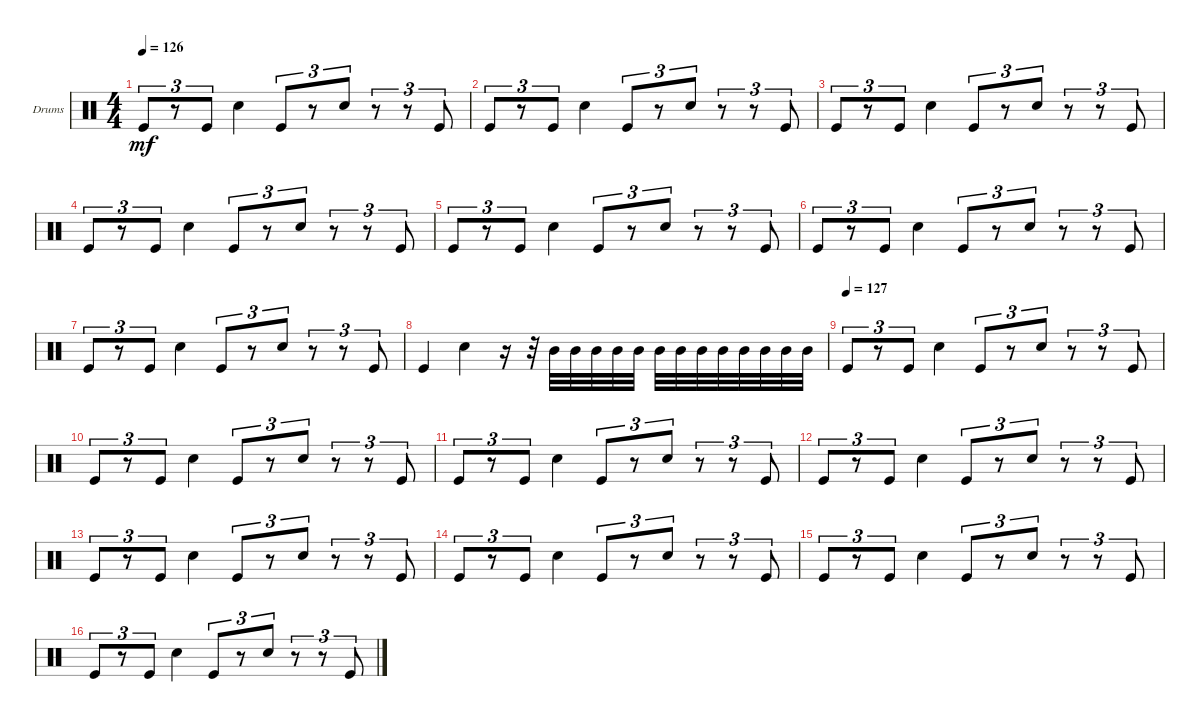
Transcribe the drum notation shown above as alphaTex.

\defaultSystemsLayout 4
\bracketExtendMode groupsimilarinstruments
\firstSystemTrackNameOrientation horizontal
\otherSystemsTrackNameOrientation horizontal
\track ("Drumkit" "Drums") {instrument percussion}
\staff {score}
\articulation defaults
\ts (4 4)
\tempo 126
\clef neutral
\scale
0.333333
\ks c "Kick (hit)".8{tu (3 2) dy mf}
r.8{tu (3 2)} "Kick (hit)".8{tu (3 2)} "Snare (hit) 2".4 "Kick (hit)".8{tu (3 2)} r.8{tu (3 2)} "Snare (hit) 2".8{tu (3 2)} r.8{tu (3 2)} r.8{tu (3 2)} "Kick (hit)".8{tu (3 2)} |
\scale
0.333333 "Kick (hit)".8{tu (3 2)} r.8{tu (3 2)} "Kick (hit)".8{tu (3 2)} "Snare (hit) 2".4 "Kick (hit)".8{tu (3 2)} r.8{tu (3 2)} "Snare (hit) 2".8{tu (3 2)} r.8{tu (3 2)} r.8{tu (3 2)} "Kick (hit)".8{tu (3 2)} |
\scale
0.333333 "Kick (hit)".8{tu (3 2)} r.8{tu (3 2)} "Kick (hit)".8{tu (3 2)} "Snare (hit) 2".4 "Kick (hit)".8{tu (3 2)} r.8{tu (3 2)} "Snare (hit) 2".8{tu (3 2)} r.8{tu (3 2)} r.8{tu (3 2)} "Kick (hit)".8{tu (3 2)} |
\scale
0.333333 "Kick (hit)".8{tu (3 2)} r.8{tu (3 2)} "Kick (hit)".8{tu (3 2)} "Snare (hit) 2".4 "Kick (hit)".8{tu (3 2)} r.8{tu (3 2)} "Snare (hit) 2".8{tu (3 2)} r.8{tu (3 2)} r.8{tu (3 2)} "Kick (hit)".8{tu (3 2)} |
\scale
0.333333 "Kick (hit)".8{tu (3 2)} r.8{tu (3 2)} "Kick (hit)".8{tu (3 2)} "Snare (hit) 2".4 "Kick (hit)".8{tu (3 2)} r.8{tu (3 2)} "Snare (hit) 2".8{tu (3 2)} r.8{tu (3 2)} r.8{tu (3 2)} "Kick (hit)".8{tu (3 2)} |
\scale
0.333333 "Kick (hit)".8{tu (3 2)} r.8{tu (3 2)} "Kick (hit)".8{tu (3 2)} "Snare (hit) 2".4 "Kick (hit)".8{tu (3 2)} r.8{tu (3 2)} "Snare (hit) 2".8{tu (3 2)} r.8{tu (3 2)} r.8{tu (3 2)} "Kick (hit)".8{tu (3 2)} |
\scale
0.333333 "Kick (hit)".8{tu (3 2)} r.8{tu (3 2)} "Kick (hit)".8{tu (3 2)} "Snare (hit) 2".4 "Kick (hit)".8{tu (3 2)} r.8{tu (3 2)} "Snare (hit) 2".8{tu (3 2)} r.8{tu (3 2)} r.8{tu (3 2)} "Kick (hit)".8{tu (3 2)} |
\scale
0.333333 "Kick (hit)".4 "Snare (hit) 2".4 r.16 r.32 "Mid Tom (hit)".32 "Mid Tom (hit)".32 "Mid Tom (hit)".32 "Mid Tom (hit)".32 "Mid Tom (hit)".32 "Mid Tom (hit)".32 "Mid Tom (hit)".32 "Mid Tom (hit)".32 "Mid Tom (hit)".32 "Mid Tom (hit)".32 "Mid Tom (hit)".32 "Mid Tom (hit)".32 "Mid Tom (hit)".32 |
\tempo 127
\scale
0.333333 "Kick (hit)".8{tu (3 2)} r.8{tu (3 2)} "Kick (hit)".8{tu (3 2)} "Snare (hit) 2".4 "Kick (hit)".8{tu (3 2)} r.8{tu (3 2)} "Snare (hit) 2".8{tu (3 2)} r.8{tu (3 2)} r.8{tu (3 2)} "Kick (hit)".8{tu (3 2)} |
\scale
0.333333 "Kick (hit)".8{tu (3 2)} r.8{tu (3 2)} "Kick (hit)".8{tu (3 2)} "Snare (hit) 2".4 "Kick (hit)".8{tu (3 2)} r.8{tu (3 2)} "Snare (hit) 2".8{tu (3 2)} r.8{tu (3 2)} r.8{tu (3 2)} "Kick (hit)".8{tu (3 2)} |
\scale
0.333333 "Kick (hit)".8{tu (3 2)} r.8{tu (3 2)} "Kick (hit)".8{tu (3 2)} "Snare (hit) 2".4 "Kick (hit)".8{tu (3 2)} r.8{tu (3 2)} "Snare (hit) 2".8{tu (3 2)} r.8{tu (3 2)} r.8{tu (3 2)} "Kick (hit)".8{tu (3 2)} |
\scale
0.333333 "Kick (hit)".8{tu (3 2)} r.8{tu (3 2)} "Kick (hit)".8{tu (3 2)} "Snare (hit) 2".4 "Kick (hit)".8{tu (3 2)} r.8{tu (3 2)} "Snare (hit) 2".8{tu (3 2)} r.8{tu (3 2)} r.8{tu (3 2)} "Kick (hit)".8{tu (3 2)} |
\scale
0.333333 "Kick (hit)".8{tu (3 2)} r.8{tu (3 2)} "Kick (hit)".8{tu (3 2)} "Snare (hit) 2".4 "Kick (hit)".8{tu (3 2)} r.8{tu (3 2)} "Snare (hit) 2".8{tu (3 2)} r.8{tu (3 2)} r.8{tu (3 2)} "Kick (hit)".8{tu (3 2)} |
\scale
0.333333 "Kick (hit)".8{tu (3 2)} r.8{tu (3 2)} "Kick (hit)".8{tu (3 2)} "Snare (hit) 2".4 "Kick (hit)".8{tu (3 2)} r.8{tu (3 2)} "Snare (hit) 2".8{tu (3 2)} r.8{tu (3 2)} r.8{tu (3 2)} "Kick (hit)".8{tu (3 2)} |
\scale
0.333333 "Kick (hit)".8{tu (3 2)} r.8{tu (3 2)} "Kick (hit)".8{tu (3 2)} "Snare (hit) 2".4 "Kick (hit)".8{tu (3 2)} r.8{tu (3 2)} "Snare (hit) 2".8{tu (3 2)} r.8{tu (3 2)} r.8{tu (3 2)} "Kick (hit)".8{tu (3 2)} |
\scale
0.333333 "Kick (hit)".8{tu (3 2)} r.8{tu (3 2)} "Kick (hit)".8{tu (3 2)} "Snare (hit) 2".4 "Kick (hit)".8{tu (3 2)} r.8{tu (3 2)} "Snare (hit) 2".8{tu (3 2)} r.8{tu (3 2)} r.8{tu (3 2)} "Kick (hit)".8{tu (3 2)}
